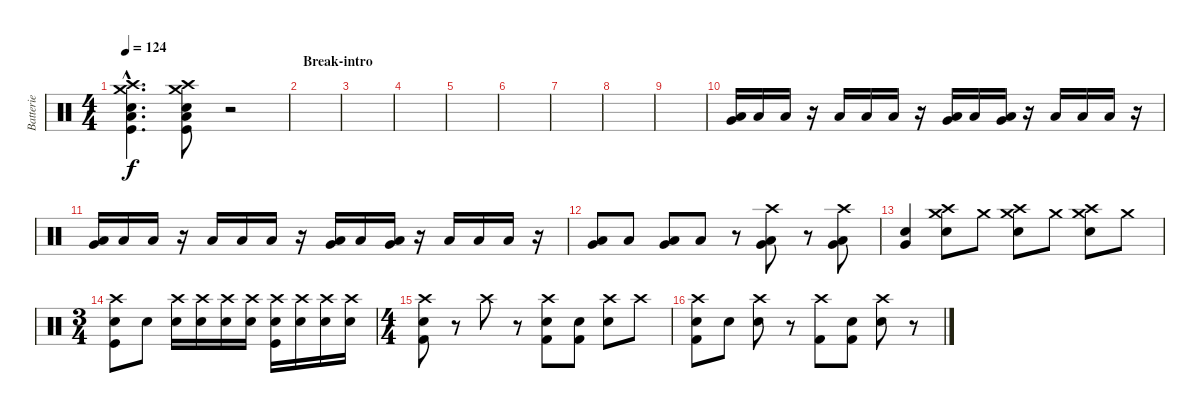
\track ("Batterie" "Batterie") {instrument percussion}
\staff {score}
\articulation defaults
\ts (4 4)
\tempo 124
\clef neutral
\ks c
("Crash high (hit)"{hac} "Crash medium (hit)"{hac} "Snare (hit) 2"{hac} "Low Tom (hit)"{hac} "Kick (hit)"{hac}).4{d dy f} ("Crash high (hit)" "Crash medium (hit)" "Snare (hit) 2" "Low Tom (hit)" "Kick (hit)").8 r.2 |
\section ("" "Break-intro")
|
|
|
|
|
|
|
|
("Low Tom (hit)" "Very Low Tom (hit)").16 "Low Tom (hit)".16 "Low Tom (hit)".16 r.16 "Low Tom (hit)".16 "Low Tom (hit)".16 "Low Tom (hit)".16 r.16 ("Low Tom (hit)" "Very Low Tom (hit)").16 "Low Tom (hit)".16 ("Low Tom (hit)" "Very Low Tom (hit)").16 r.16 "Low Tom (hit)".16 "Low Tom (hit)".16 "Low Tom (hit)".16 r.16 |
("Low Tom (hit)" "Very Low Tom (hit)").16 "Low Tom (hit)".16 "Low Tom (hit)".16 r.16 "Low Tom (hit)".16 "Low Tom (hit)".16 "Low Tom (hit)".16 r.16 ("Low Tom (hit)" "Very Low Tom (hit)").16 "Low Tom (hit)".16 ("Low Tom (hit)" "Very Low Tom (hit)").16 r.16 "Low Tom (hit)".16 "Low Tom (hit)".16 "Low Tom (hit)".16 r.16 |
("Low Tom (hit)" "Very Low Tom (hit)").8 "Low Tom (hit)".8 ("Low Tom (hit)" "Very Low Tom (hit)").8 "Low Tom (hit)".8 r.8 ("Crash high (hit)" "Low Tom (hit)" "Very Low Tom (hit)").8 r.8 ("Crash high (hit)" "Low Tom (hit)" "Very Low Tom (hit)").8 |
("Snare (hit) 2" "Very Low Tom (hit)").4 ("Crash high (hit)" "Crash medium (hit)" "Snare (hit) 2").8 "Crash medium (hit)".8 ("Crash high (hit)" "Crash medium (hit)" "Snare (hit) 2").8 "Crash medium (hit)".8 ("Crash high (hit)" "Crash medium (hit)" "Snare (hit) 2").8 "Crash medium (hit)".8 |
\ts (3 4)
("Crash high (hit)" "Snare (hit) 2" "Kick (hit)").8 "Snare (hit) 2".8 ("Crash high (hit)" "Snare (hit) 2").16 ("Crash high (hit)" "Snare (hit) 2").16 ("Crash high (hit)" "Snare (hit) 2").16 ("Crash high (hit)" "Snare (hit) 2").16 ("Crash high (hit)" "Snare (hit) 2" "Kick (hit)").16 ("Crash high (hit)" "Snare (hit) 2").16 ("Crash high (hit)" "Snare (hit) 2").16 ("Crash high (hit)" "Snare (hit) 2").16 |
\ts (4 4)
("Crash high (hit)" "Snare (hit) 2" "Kick (hit) 2").8 r.8 "Crash high (hit)".8 r.8 ("Crash high (hit)" "Snare (hit) 2" "Kick (hit) 2").8 ("Snare (hit) 2" "Kick (hit) 2").8 ("Crash high (hit)" "Snare (hit) 2").8 "Crash high (hit)".8 |
("Crash high (hit)" "Snare (hit) 2" "Kick (hit) 2").8 "Snare (hit) 2".8 ("Crash high (hit)" "Snare (hit) 2").8 r.8 ("Crash high (hit)" "Kick (hit) 2").8 ("Snare (hit) 2" "Kick (hit) 2").8 ("Crash high (hit)" "Snare (hit) 2").8 r.8
